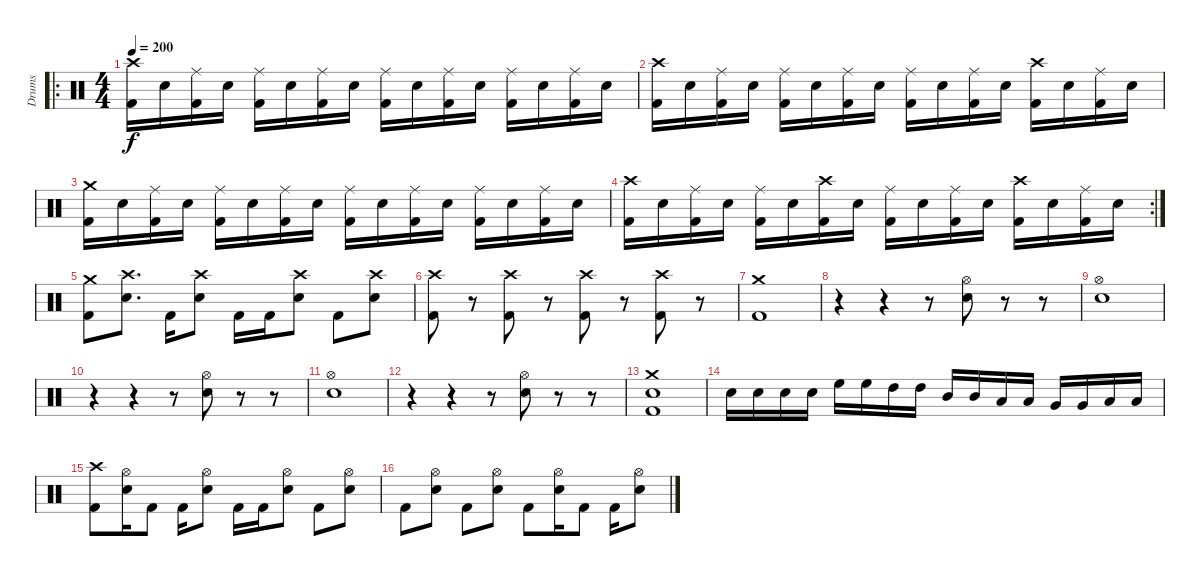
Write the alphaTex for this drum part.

\track ("Drums" "Drums") {instrument percussion}
\staff {score}
\articulation defaults
\ro
\ts (4 4)
\tempo 200
\clef neutral
\ks c
("Crash high (hit)" "Kick (hit) 2").16{dy f} "Electric Snare (hit)".16 ("Ride (middle)" "Kick (hit) 2").16 "Electric Snare (hit)".16 ("Ride (middle)" "Kick (hit) 2").16 "Electric Snare (hit)".16 ("Ride (middle)" "Kick (hit) 2").16 "Electric Snare (hit)".16 ("Ride (middle)" "Kick (hit) 2").16 "Electric Snare (hit)".16 ("Ride (middle)" "Kick (hit) 2").16 "Electric Snare (hit)".16 ("Ride (middle)" "Kick (hit) 2").16 "Electric Snare (hit)".16 ("Ride (middle)" "Kick (hit) 2").16 "Electric Snare (hit)".16 |
("Crash high (hit)" "Kick (hit) 2").16 "Electric Snare (hit)".16 ("Ride (middle)" "Kick (hit) 2").16 "Electric Snare (hit)".16 ("Ride (middle)" "Kick (hit) 2").16 "Electric Snare (hit)".16 ("Ride (middle)" "Kick (hit) 2").16 "Electric Snare (hit)".16 ("Ride (middle)" "Kick (hit) 2").16 "Electric Snare (hit)".16 ("Ride (middle)" "Kick (hit) 2").16 "Electric Snare (hit)".16 ("Crash high (hit)" "Kick (hit) 2").16 "Electric Snare (hit)".16 ("Ride (middle)" "Kick (hit) 2").16 "Electric Snare (hit)".16 |
("Crash medium (hit)" "Kick (hit) 2").16 "Electric Snare (hit)".16 ("Ride (middle)" "Kick (hit) 2").16 "Electric Snare (hit)".16 ("Ride (middle)" "Kick (hit) 2").16 "Electric Snare (hit)".16 ("Ride (middle)" "Kick (hit) 2").16 "Electric Snare (hit)".16 ("Ride (middle)" "Kick (hit) 2").16 "Electric Snare (hit)".16 ("Ride (middle)" "Kick (hit) 2").16 "Electric Snare (hit)".16 ("Ride (middle)" "Kick (hit) 2").16 "Electric Snare (hit)".16 ("Ride (middle)" "Kick (hit) 2").16 "Electric Snare (hit)".16 |
\rc 2
("Crash high (hit)" "Kick (hit) 2").16 "Electric Snare (hit)".16 ("Ride (middle)" "Kick (hit) 2").16 "Electric Snare (hit)".16 ("Ride (middle)" "Kick (hit) 2").16 "Electric Snare (hit)".16 ("Crash high (hit)" "Kick (hit) 2").16 "Electric Snare (hit)".16 ("Ride (middle)" "Kick (hit) 2").16 "Electric Snare (hit)".16 ("Ride (middle)" "Kick (hit) 2").16 "Electric Snare (hit)".16 ("Crash high (hit)" "Kick (hit) 2").16 "Electric Snare (hit)".16 ("Ride (middle)" "Kick (hit) 2").16 "Electric Snare (hit)".16 |
("Crash medium (hit)" "Kick (hit) 2").8 ("Crash high (hit)" "Electric Snare (hit)").8{d} "Kick (hit) 2".16 ("Crash high (hit)" "Electric Snare (hit)").8 "Kick (hit) 2".16 "Kick (hit) 2".16 ("Crash high (hit)" "Electric Snare (hit)").8 "Kick (hit) 2".8 ("Crash high (hit)" "Electric Snare (hit)").8 |
("Crash high (hit)" "Kick (hit) 2").8 r.8 ("Crash high (hit)" "Kick (hit) 2").8 r.8 ("Crash high (hit)" "Kick (hit) 2").8 r.8 ("Crash high (hit)" "Kick (hit) 2").8 r.8 |
("Crash medium (hit)" "Kick (hit) 2").1 |
r.4 r.4 r.8 ("Hi-Hat (open)" "Electric Snare (hit)").8 r.8 r.8 |
("Hi-Hat (open)" "Electric Snare (hit)").1 |
r.4 r.4 r.8 ("Hi-Hat (open)" "Electric Snare (hit)").8 r.8 r.8 |
("Hi-Hat (open)" "Electric Snare (hit)").1 |
r.4 r.4 r.8 ("Hi-Hat (open)" "Electric Snare (hit)").8 r.8 r.8 |
("Crash medium (hit)" "Electric Snare (hit)" "Kick (hit) 2").1 |
"Electric Snare (hit)".16 "Electric Snare (hit)".16 "Electric Snare (hit)".16 "Electric Snare (hit)".16 "High Floor Tom (hit)".16 "High Floor Tom (hit)".16 "High Tom (hit)".16 "High Tom (hit)".16 "Mid Tom (hit)".16 "Mid Tom (hit)".16 "Low Tom (hit)".16 "Low Tom (hit)".16 "Very Low Tom (hit)".16 "Very Low Tom (hit)".16 "Low Floor Tom (hit)".16 "Low Floor Tom (hit)".16 |
("Crash high (hit)" "Kick (hit) 2").8 ("Hi-Hat (open)" "Electric Snare (hit)").16 "Kick (hit) 2".8 "Kick (hit) 2".16 ("Hi-Hat (open)" "Electric Snare (hit)").8 "Kick (hit) 2".16 "Kick (hit) 2".16 ("Hi-Hat (open)" "Electric Snare (hit)").8 "Kick (hit) 2".8 ("Hi-Hat (open)" "Electric Snare (hit)").8 |
"Kick (hit) 2".8 ("Hi-Hat (open)" "Electric Snare (hit)").8 "Kick (hit) 2".8 ("Hi-Hat (open)" "Electric Snare (hit)").8 "Kick (hit) 2".8 ("Hi-Hat (open)" "Electric Snare (hit)").16 "Kick (hit) 2".8 "Kick (hit) 2".16 ("Hi-Hat (open)" "Electric Snare (hit)").8
